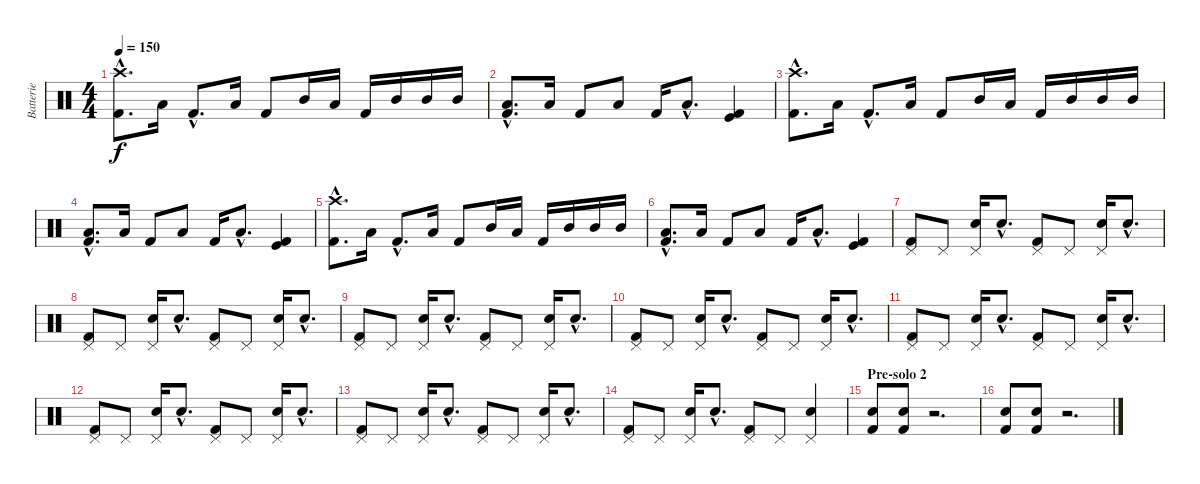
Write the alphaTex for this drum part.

\track ("Batterie" "Batterie") {instrument percussion}
\staff {score}
\articulation defaults
\ts (4 4)
\tempo 150
\clef neutral
\ks c
("Crash high (hit)"{hac} "Kick (hit) 2"{hac}).8{d dy f} "Low Tom (hit)".16 "Kick (hit) 2"{hac}.8{d} "Low Tom (hit)".16 "Kick (hit) 2".8 "Mid Tom (hit)".16 "Low Tom (hit)".16 "Kick (hit) 2".16 "Mid Tom (hit)".16 "Mid Tom (hit)".16 "Mid Tom (hit)".16 |
("Low Tom (hit)"{hac} "Kick (hit) 2"{hac}).8{d} "Low Tom (hit)".16 "Kick (hit) 2".8 "Low Tom (hit)".8 "Kick (hit) 2".16 "Low Tom (hit)"{hac}.8{d} ("Kick (hit)" "Kick (hit) 2").4 |
("Crash high (hit)"{hac} "Kick (hit) 2"{hac}).8{d} "Low Tom (hit)".16 "Kick (hit) 2"{hac}.8{d} "Low Tom (hit)".16 "Kick (hit) 2".8 "Mid Tom (hit)".16 "Low Tom (hit)".16 "Kick (hit) 2".16 "Mid Tom (hit)".16 "Mid Tom (hit)".16 "Mid Tom (hit)".16 |
("Low Tom (hit)"{hac} "Kick (hit) 2"{hac}).8{d} "Low Tom (hit)".16 "Kick (hit) 2".8 "Low Tom (hit)".8 "Kick (hit) 2".16 "Low Tom (hit)"{hac}.8{d} ("Kick (hit)" "Kick (hit) 2").4 |
("Crash high (hit)"{hac} "Kick (hit) 2"{hac}).8{d} "Low Tom (hit)".16 "Kick (hit) 2"{hac}.8{d} "Low Tom (hit)".16 "Kick (hit) 2".8 "Mid Tom (hit)".16 "Low Tom (hit)".16 "Kick (hit) 2".16 "Mid Tom (hit)".16 "Mid Tom (hit)".16 "Mid Tom (hit)".16 |
("Low Tom (hit)"{hac} "Kick (hit) 2"{hac}).8{d} "Low Tom (hit)".16 "Kick (hit) 2".8 "Low Tom (hit)".8 "Kick (hit) 2".16 "Low Tom (hit)"{hac}.8{d} ("Kick (hit)" "Kick (hit) 2").4 |
("Pedal Hi-Hat (hit)" "Kick (hit) 2").8 "Pedal Hi-Hat (hit)".8 ("Pedal Hi-Hat (hit)" "Electric Snare (hit)").16 "Electric Snare (hit)"{hac}.8{d} ("Pedal Hi-Hat (hit)" "Kick (hit) 2").8 "Pedal Hi-Hat (hit)".8 ("Pedal Hi-Hat (hit)" "Electric Snare (hit)").16 "Electric Snare (hit)"{hac}.8{d} |
("Pedal Hi-Hat (hit)" "Kick (hit) 2").8 "Pedal Hi-Hat (hit)".8 ("Pedal Hi-Hat (hit)" "Electric Snare (hit)").16 "Electric Snare (hit)"{hac}.8{d} ("Pedal Hi-Hat (hit)" "Kick (hit) 2").8 "Pedal Hi-Hat (hit)".8 ("Pedal Hi-Hat (hit)" "Electric Snare (hit)").16 "Electric Snare (hit)"{hac}.8{d} |
("Pedal Hi-Hat (hit)" "Kick (hit) 2").8 "Pedal Hi-Hat (hit)".8 ("Pedal Hi-Hat (hit)" "Electric Snare (hit)").16 "Electric Snare (hit)"{hac}.8{d} ("Pedal Hi-Hat (hit)" "Kick (hit) 2").8 "Pedal Hi-Hat (hit)".8 ("Pedal Hi-Hat (hit)" "Electric Snare (hit)").16 "Electric Snare (hit)"{hac}.8{d} |
("Pedal Hi-Hat (hit)" "Kick (hit) 2").8 "Pedal Hi-Hat (hit)".8 ("Pedal Hi-Hat (hit)" "Electric Snare (hit)").16 "Electric Snare (hit)"{hac}.8{d} ("Pedal Hi-Hat (hit)" "Kick (hit) 2").8 "Pedal Hi-Hat (hit)".8 ("Pedal Hi-Hat (hit)" "Electric Snare (hit)").16 "Electric Snare (hit)"{hac}.8{d} |
("Pedal Hi-Hat (hit)" "Kick (hit) 2").8 "Pedal Hi-Hat (hit)".8 ("Pedal Hi-Hat (hit)" "Electric Snare (hit)").16 "Electric Snare (hit)"{hac}.8{d} ("Pedal Hi-Hat (hit)" "Kick (hit) 2").8 "Pedal Hi-Hat (hit)".8 ("Pedal Hi-Hat (hit)" "Electric Snare (hit)").16 "Electric Snare (hit)"{hac}.8{d} |
("Pedal Hi-Hat (hit)" "Kick (hit) 2").8 "Pedal Hi-Hat (hit)".8 ("Pedal Hi-Hat (hit)" "Electric Snare (hit)").16 "Electric Snare (hit)"{hac}.8{d} ("Pedal Hi-Hat (hit)" "Kick (hit) 2").8 "Pedal Hi-Hat (hit)".8 ("Pedal Hi-Hat (hit)" "Electric Snare (hit)").16 "Electric Snare (hit)"{hac}.8{d} |
("Pedal Hi-Hat (hit)" "Kick (hit) 2").8 "Pedal Hi-Hat (hit)".8 ("Pedal Hi-Hat (hit)" "Electric Snare (hit)").16 "Electric Snare (hit)"{hac}.8{d} ("Pedal Hi-Hat (hit)" "Kick (hit) 2").8 "Pedal Hi-Hat (hit)".8 ("Pedal Hi-Hat (hit)" "Electric Snare (hit)").16 "Electric Snare (hit)"{hac}.8{d} |
("Pedal Hi-Hat (hit)" "Kick (hit) 2").8 "Pedal Hi-Hat (hit)".8 ("Pedal Hi-Hat (hit)" "Electric Snare (hit)").16 "Electric Snare (hit)"{hac}.8{d} ("Pedal Hi-Hat (hit)" "Kick (hit) 2").8 "Pedal Hi-Hat (hit)".8 ("Pedal Hi-Hat (hit)" "Electric Snare (hit)").4 |
\section ("" "Pre-solo 2")
("Electric Snare (hit)" "Kick (hit) 2").8 ("Electric Snare (hit)" "Kick (hit) 2").8 r.2{d} |
("Electric Snare (hit)" "Kick (hit) 2").8 ("Electric Snare (hit)" "Kick (hit) 2").8 r.2{d}
